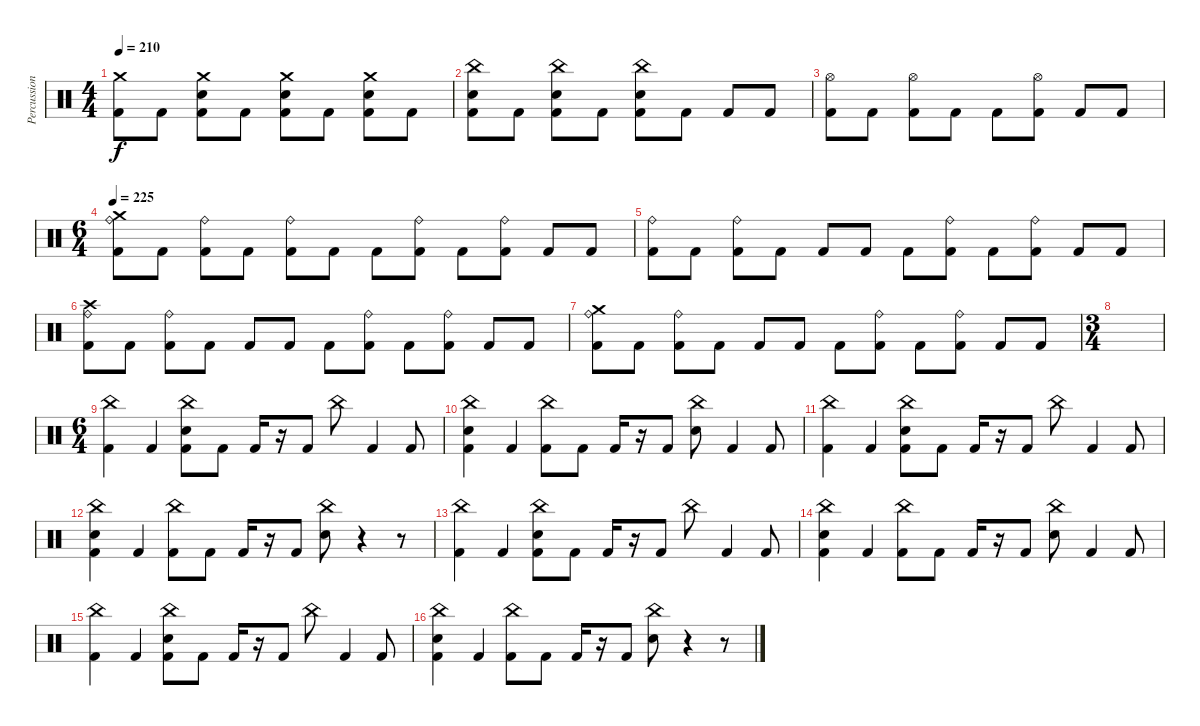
\track ("Percussion" "Percussion") {instrument percussion}
\staff {score}
\articulation defaults
\ts (4 4)
\tempo 210
\clef neutral
\ks c
("Crash medium (hit)" "Kick (hit) 2").8{dy f} "Kick (hit) 2".8 ("Crash medium (hit)" "Snare (hit) 2" "Kick (hit) 2").8 "Kick (hit) 2".8 ("Crash medium (hit)" "Snare (hit) 2" "Kick (hit) 2").8 "Kick (hit) 2".8 ("Crash medium (hit)" "Snare (hit) 2" "Kick (hit) 2").8 "Kick (hit) 2".8 |
("China (hit)" "Snare (hit) 2" "Kick (hit) 2").8 "Kick (hit) 2".8 ("China (hit)" "Snare (hit) 2" "Kick (hit) 2").8 "Kick (hit) 2".8 ("China (hit)" "Snare (hit) 2" "Kick (hit) 2").8 "Kick (hit) 2".8 "Kick (hit) 2".8 "Kick (hit) 2".8 |
("Hi-Hat (open)" "Kick (hit) 2").8 "Kick (hit) 2".8 ("Hi-Hat (open)" "Kick (hit) 2").8 "Kick (hit) 2".8 "Kick (hit) 2".8 ("Hi-Hat (open)" "Kick (hit) 2").8 "Kick (hit) 2".8 "Kick (hit) 2".8 |
\ts (6 4)
\tempo 225
("Crash medium (hit)" "Ride (bell)" "Kick (hit) 2").8 "Kick (hit) 2".8 ("Ride (bell)" "Kick (hit) 2").8 "Kick (hit) 2".8 ("Ride (bell)" "Kick (hit) 2").8 "Kick (hit) 2".8 "Kick (hit) 2".8 ("Ride (bell)" "Kick (hit) 2").8 "Kick (hit) 2".8 ("Ride (bell)" "Kick (hit) 2").8 "Kick (hit) 2".8 "Kick (hit) 2".8 |
("Ride (bell)" "Kick (hit) 2").8 "Kick (hit) 2".8 ("Ride (bell)" "Kick (hit) 2").8 "Kick (hit) 2".8 "Kick (hit) 2".8 "Kick (hit) 2".8 "Kick (hit) 2".8 ("Ride (bell)" "Kick (hit) 2").8 "Kick (hit) 2".8 ("Ride (bell)" "Kick (hit) 2").8 "Kick (hit) 2".8 "Kick (hit) 2".8 |
("Crash high (hit)" "Ride (bell)" "Kick (hit) 2").8 "Kick (hit) 2".8 ("Ride (bell)" "Kick (hit) 2").8 "Kick (hit) 2".8 "Kick (hit) 2".8 "Kick (hit) 2".8 "Kick (hit) 2".8 ("Ride (bell)" "Kick (hit) 2").8 "Kick (hit) 2".8 ("Ride (bell)" "Kick (hit) 2").8 "Kick (hit) 2".8 "Kick (hit) 2".8 |
("Crash medium (hit)" "Ride (bell)" "Kick (hit) 2").8 "Kick (hit) 2".8 ("Ride (bell)" "Kick (hit) 2").8 "Kick (hit) 2".8 "Kick (hit) 2".8 "Kick (hit) 2".8 "Kick (hit) 2".8 ("Ride (bell)" "Kick (hit) 2").8 "Kick (hit) 2".8 ("Ride (bell)" "Kick (hit) 2").8 "Kick (hit) 2".8 "Kick (hit) 2".8 |
\ts (3 4)
|
\ts (6 4)
("China (hit)" "Kick (hit) 2").4 "Kick (hit) 2".4 ("China (hit)" "Snare (hit) 2" "Kick (hit) 2").8 "Kick (hit) 2".8 "Kick (hit) 2".16 r.16 "Kick (hit) 2".8 "China (hit)".8 "Kick (hit) 2".4 "Kick (hit) 2".8 |
("China (hit)" "Snare (hit) 2" "Kick (hit) 2").4 "Kick (hit) 2".4 ("China (hit)" "Kick (hit) 2").8 "Kick (hit) 2".8 "Kick (hit) 2".16 r.16 "Kick (hit) 2".8 ("China (hit)" "Snare (hit) 2").8 "Kick (hit) 2".4 "Kick (hit) 2".8 |
("China (hit)" "Kick (hit) 2").4 "Kick (hit) 2".4 ("China (hit)" "Snare (hit) 2" "Kick (hit) 2").8 "Kick (hit) 2".8 "Kick (hit) 2".16 r.16 "Kick (hit) 2".8 "China (hit)".8 "Kick (hit) 2".4 "Kick (hit) 2".8 |
("China (hit)" "Snare (hit) 2" "Kick (hit) 2").4 "Kick (hit) 2".4 ("China (hit)" "Kick (hit) 2").8 "Kick (hit) 2".8 "Kick (hit) 2".16 r.16 "Kick (hit) 2".8 ("China (hit)" "Snare (hit) 2").8 r.4 r.8 |
("China (hit)" "Kick (hit) 2").4 "Kick (hit) 2".4 ("China (hit)" "Snare (hit) 2" "Kick (hit) 2").8 "Kick (hit) 2".8 "Kick (hit) 2".16 r.16 "Kick (hit) 2".8 "China (hit)".8 "Kick (hit) 2".4 "Kick (hit) 2".8 |
("China (hit)" "Snare (hit) 2" "Kick (hit) 2").4 "Kick (hit) 2".4 ("China (hit)" "Kick (hit) 2").8 "Kick (hit) 2".8 "Kick (hit) 2".16 r.16 "Kick (hit) 2".8 ("China (hit)" "Snare (hit) 2").8 "Kick (hit) 2".4 "Kick (hit) 2".8 |
("China (hit)" "Kick (hit) 2").4 "Kick (hit) 2".4 ("China (hit)" "Snare (hit) 2" "Kick (hit) 2").8 "Kick (hit) 2".8 "Kick (hit) 2".16 r.16 "Kick (hit) 2".8 "China (hit)".8 "Kick (hit) 2".4 "Kick (hit) 2".8 |
("China (hit)" "Snare (hit) 2" "Kick (hit) 2").4 "Kick (hit) 2".4 ("China (hit)" "Kick (hit) 2").8 "Kick (hit) 2".8 "Kick (hit) 2".16 r.16 "Kick (hit) 2".8 ("China (hit)" "Snare (hit) 2").8 r.4 r.8
